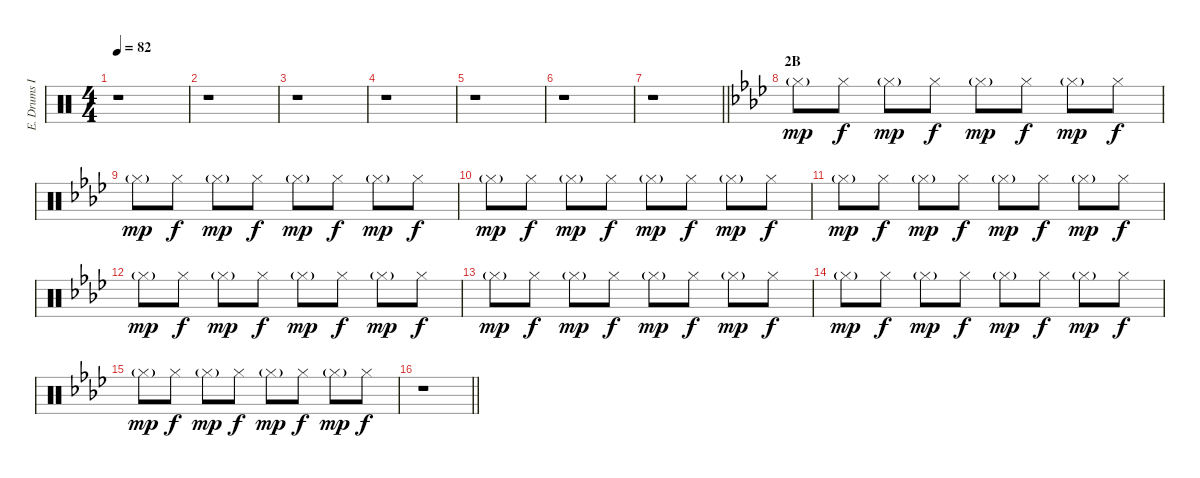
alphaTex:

\track ("E. Drums II" "E. Drums I") {instrument percussion}
\staff {score}
\articulation defaults
\ts (4 4)
\tempo 82
\clef neutral
\ks c
r.1{dy f} |
r.1 |
r.1 |
r.1 |
r.1 |
r.1 |
\barLineRight lightlight
r.1 |
\section ("" "2B")
\ks ab "Hi-Hat (closed)"{g}.8{dy mp} "Hi-Hat (closed)".8{dy f} "Hi-Hat (closed)"{g}.8{dy mp} "Hi-Hat (closed)".8{dy f} "Hi-Hat (closed)"{g}.8{dy mp} "Hi-Hat (closed)".8{dy f} "Hi-Hat (closed)"{g}.8{dy mp} "Hi-Hat (closed)".8{dy f}
|
"Hi-Hat (closed)"{g}.8{dy mp} "Hi-Hat (closed)".8{dy f} "Hi-Hat (closed)"{g}.8{dy mp} "Hi-Hat (closed)".8{dy f} "Hi-Hat (closed)"{g}.8{dy mp} "Hi-Hat (closed)".8{dy f} "Hi-Hat (closed)"{g}.8{dy mp} "Hi-Hat (closed)".8{dy f} |
"Hi-Hat (closed)"{g}.8{dy mp} "Hi-Hat (closed)".8{dy f} "Hi-Hat (closed)"{g}.8{dy mp} "Hi-Hat (closed)".8{dy f} "Hi-Hat (closed)"{g}.8{dy mp} "Hi-Hat (closed)".8{dy f} "Hi-Hat (closed)"{g}.8{dy mp} "Hi-Hat (closed)".8{dy f} |
"Hi-Hat (closed)"{g}.8{dy mp} "Hi-Hat (closed)".8{dy f} "Hi-Hat (closed)"{g}.8{dy mp} "Hi-Hat (closed)".8{dy f} "Hi-Hat (closed)"{g}.8{dy mp} "Hi-Hat (closed)".8{dy f} "Hi-Hat (closed)"{g}.8{dy mp} "Hi-Hat (closed)".8{dy f} |
"Hi-Hat (closed)"{g}.8{dy mp} "Hi-Hat (closed)".8{dy f} "Hi-Hat (closed)"{g}.8{dy mp} "Hi-Hat (closed)".8{dy f} "Hi-Hat (closed)"{g}.8{dy mp} "Hi-Hat (closed)".8{dy f} "Hi-Hat (closed)"{g}.8{dy mp} "Hi-Hat (closed)".8{dy f} |
"Hi-Hat (closed)"{g}.8{dy mp} "Hi-Hat (closed)".8{dy f} "Hi-Hat (closed)"{g}.8{dy mp} "Hi-Hat (closed)".8{dy f} "Hi-Hat (closed)"{g}.8{dy mp} "Hi-Hat (closed)".8{dy f} "Hi-Hat (closed)"{g}.8{dy mp} "Hi-Hat (closed)".8{dy f} |
"Hi-Hat (closed)"{g}.8{dy mp} "Hi-Hat (closed)".8{dy f} "Hi-Hat (closed)"{g}.8{dy mp} "Hi-Hat (closed)".8{dy f} "Hi-Hat (closed)"{g}.8{dy mp} "Hi-Hat (closed)".8{dy f} "Hi-Hat (closed)"{g}.8{dy mp} "Hi-Hat (closed)".8{dy f} |
"Hi-Hat (closed)"{g}.8{dy mp} "Hi-Hat (closed)".8{dy f} "Hi-Hat (closed)"{g}.8{dy mp} "Hi-Hat (closed)".8{dy f} "Hi-Hat (closed)"{g}.8{dy mp} "Hi-Hat (closed)".8{dy f} "Hi-Hat (closed)"{g}.8{dy mp} "Hi-Hat (closed)".8{dy f} |
\barLineRight lightlight
r.1
